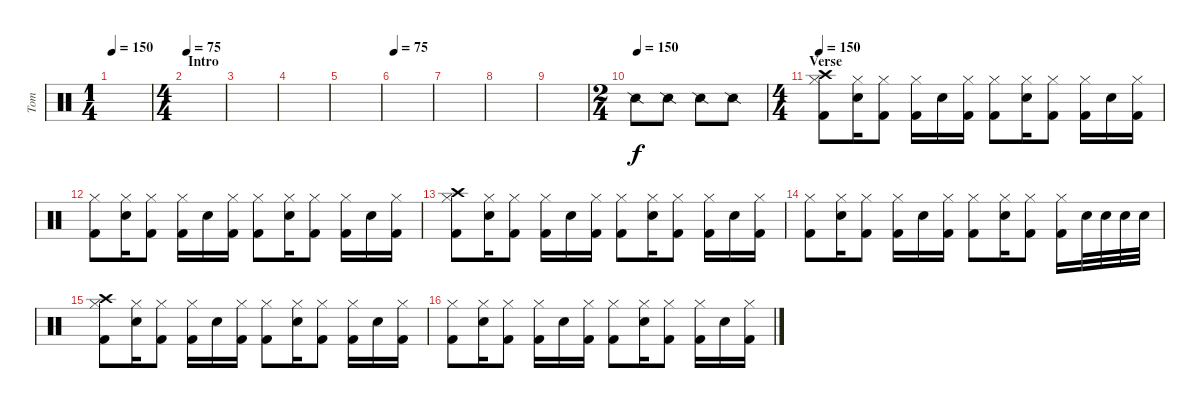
\track ("Tom" "Tom") {instrument percussion}
\staff {score}
\articulation defaults
\ts (1 4)
\tempo 150
\tempo 70
\tempo 150
\clef neutral
\ks c
|
\ts (4 4)
\section ("" "Intro")
\tempo 75
|
|
|
|
\tempo 75
|
|
|
|
\ts (2 4)
\tempo (150)
"Snare (side stick) 2".8 "Snare (side stick) 2".8 "Snare (side stick) 2".8 "Snare (side stick) 2".8 |
\ts (4 4)
\section ("" "Verse")
\tempo 150
("Crash high (hit)" "Hi-Hat (closed)" "Kick (hit) 2").8 ("Hi-Hat (closed)" "Electric Snare (hit)").16 ("Hi-Hat (closed)" "Kick (hit) 2").8 ("Hi-Hat (closed)" "Kick (hit) 2").16 "Electric Snare (hit)".16 ("Hi-Hat (closed)" "Kick (hit) 2").16 ("Hi-Hat (closed)" "Kick (hit) 2").8 ("Hi-Hat (closed)" "Electric Snare (hit)").16 ("Hi-Hat (closed)" "Kick (hit) 2").8 ("Hi-Hat (closed)" "Kick (hit) 2").16 "Electric Snare (hit)".16 ("Hi-Hat (closed)" "Kick (hit) 2").16 |
("Hi-Hat (closed)" "Kick (hit) 2").8 ("Hi-Hat (closed)" "Electric Snare (hit)").16 ("Hi-Hat (closed)" "Kick (hit) 2").8 ("Hi-Hat (closed)" "Kick (hit) 2").16 "Electric Snare (hit)".16 ("Hi-Hat (closed)" "Kick (hit) 2").16 ("Hi-Hat (closed)" "Kick (hit) 2").8 ("Hi-Hat (closed)" "Electric Snare (hit)").16 ("Hi-Hat (closed)" "Kick (hit) 2").8 ("Hi-Hat (closed)" "Kick (hit) 2").16 "Electric Snare (hit)".16 ("Hi-Hat (closed)" "Kick (hit) 2").16 |
("Crash high (hit)" "Hi-Hat (closed)" "Kick (hit) 2").8 ("Hi-Hat (closed)" "Electric Snare (hit)").16 ("Hi-Hat (closed)" "Kick (hit) 2").8 ("Hi-Hat (closed)" "Kick (hit) 2").16 "Electric Snare (hit)".16 ("Hi-Hat (closed)" "Kick (hit) 2").16 ("Hi-Hat (closed)" "Kick (hit) 2").8 ("Hi-Hat (closed)" "Electric Snare (hit)").16 ("Hi-Hat (closed)" "Kick (hit) 2").8 ("Hi-Hat (closed)" "Kick (hit) 2").16 "Electric Snare (hit)".16 ("Hi-Hat (closed)" "Kick (hit) 2").16 |
("Hi-Hat (closed)" "Kick (hit) 2").8 ("Hi-Hat (closed)" "Electric Snare (hit)").16 ("Hi-Hat (closed)" "Kick (hit) 2").8 ("Hi-Hat (closed)" "Kick (hit) 2").16 "Electric Snare (hit)".16 ("Hi-Hat (closed)" "Kick (hit) 2").16 ("Hi-Hat (closed)" "Kick (hit) 2").8 ("Hi-Hat (closed)" "Electric Snare (hit)").16 ("Hi-Hat (closed)" "Kick (hit) 2").8 ("Hi-Hat (closed)" "Kick (hit) 2").16 "Electric Snare (hit)".32 "Electric Snare (hit)".32 "Electric Snare (hit)".32 "Electric Snare (hit)".32 |
("Crash high (hit)" "Hi-Hat (closed)" "Kick (hit) 2").8 ("Hi-Hat (closed)" "Electric Snare (hit)").16 ("Hi-Hat (closed)" "Kick (hit) 2").8 ("Hi-Hat (closed)" "Kick (hit) 2").16 "Electric Snare (hit)".16 ("Hi-Hat (closed)" "Kick (hit) 2").16 ("Hi-Hat (closed)" "Kick (hit) 2").8 ("Hi-Hat (closed)" "Electric Snare (hit)").16 ("Hi-Hat (closed)" "Kick (hit) 2").8 ("Hi-Hat (closed)" "Kick (hit) 2").16 "Electric Snare (hit)".16 ("Hi-Hat (closed)" "Kick (hit) 2").16 |
("Hi-Hat (closed)" "Kick (hit) 2").8 ("Hi-Hat (closed)" "Electric Snare (hit)").16 ("Hi-Hat (closed)" "Kick (hit) 2").8 ("Hi-Hat (closed)" "Kick (hit) 2").16 "Electric Snare (hit)".16 ("Hi-Hat (closed)" "Kick (hit) 2").16 ("Hi-Hat (closed)" "Kick (hit) 2").8 ("Hi-Hat (closed)" "Electric Snare (hit)").16 ("Hi-Hat (closed)" "Kick (hit) 2").8 ("Hi-Hat (closed)" "Kick (hit) 2").16 "Electric Snare (hit)".16 ("Hi-Hat (closed)" "Kick (hit) 2").16
